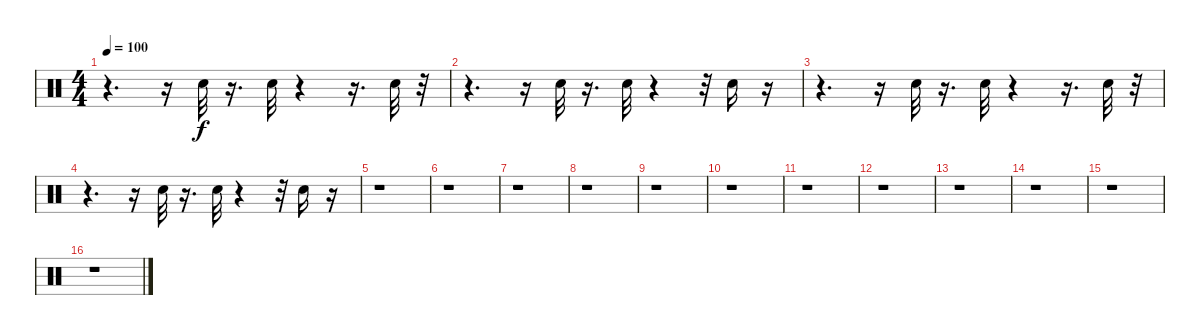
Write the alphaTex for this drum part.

\track "" {instrument percussion}
\staff {score}
\articulation defaults
\ts (4 4)
\tempo 100
\clef neutral
\ks c
r.4{d dy f} r.16 "Snare (hit)".32 r.16{d} "Snare (hit)".32 r.4 r.16{d} "Snare (hit)".32 r.32 |
r.4{d} r.16 "Snare (hit)".32 r.16{d} "Snare (hit)".32 r.4 r.32 "Snare (hit)".16 r.16 |
r.4{d} r.16 "Snare (hit)".32 r.16{d} "Snare (hit)".32 r.4 r.16{d} "Snare (hit)".32 r.32 |
r.4{d} r.16 "Snare (hit)".32 r.16{d} "Snare (hit)".32 r.4 r.32 "Snare (hit)".16 r.16 |
r.1 |
r.1 |
r.1 |
r.1 |
r.1 |
r.1 |
r.1 |
r.1 |
r.1 |
r.1 |
r.1 |
r.1
